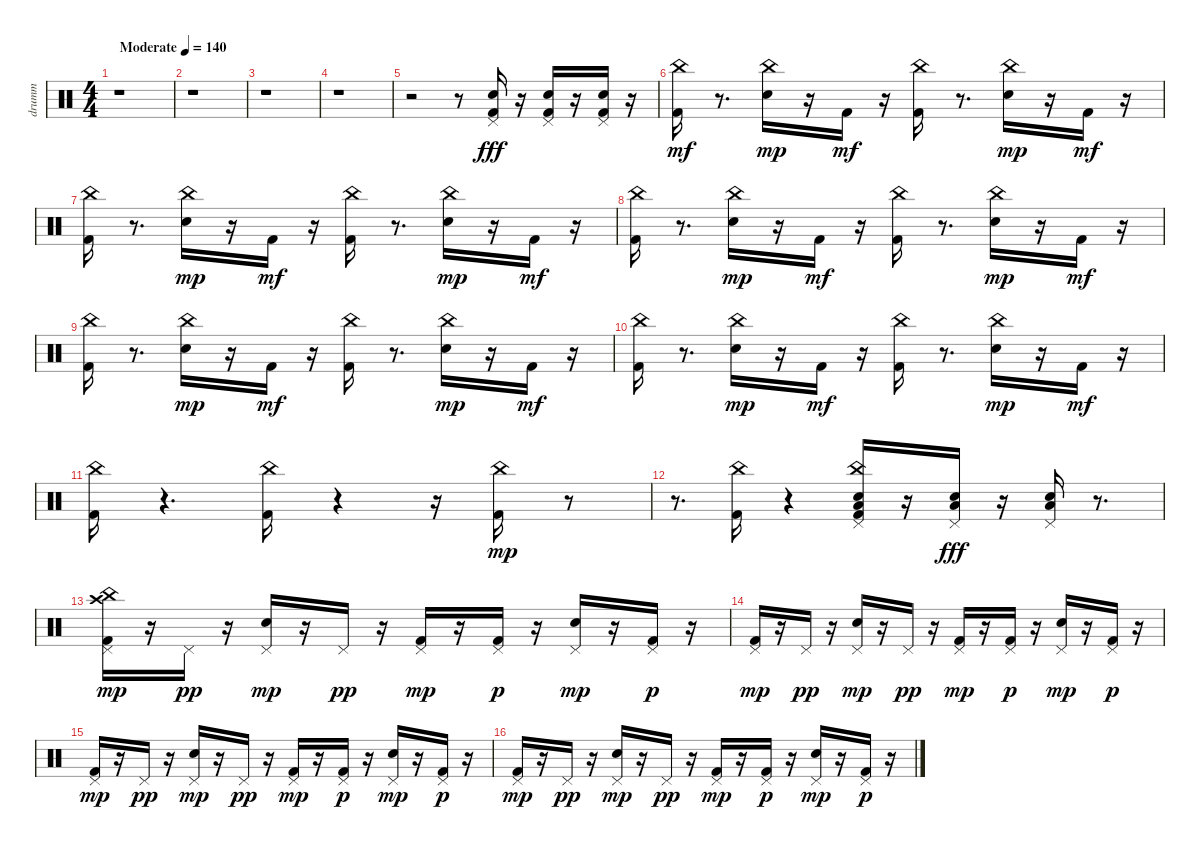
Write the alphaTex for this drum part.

\track ("drumm" "drumm") {instrument percussion}
\staff {score}
\articulation defaults
\ts (4 4)
\tempo (140 "Moderate")
\clef neutral
\ks c
r.1{dy fff} |
r.1 |
r.1 |
r.1 |
r.2 r.8 ("Pedal Hi-Hat (hit)" "Kick (hit) 2" "Electric Snare (hit)").16 r.16 ("Pedal Hi-Hat (hit)" "Kick (hit) 2" "Electric Snare (hit)").16 r.16 ("Pedal Hi-Hat (hit)" "Kick (hit) 2" "Electric Snare (hit)").16 r.16 |
("China (hit)" "Kick (hit) 2").16{dy mf} r.8{d} ("Electric Snare (hit)" "China (hit)").16{dy mp} r.16 "Kick (hit) 2".16{dy mf} r.16 ("China (hit)" "Kick (hit) 2").16 r.8{d} ("Electric Snare (hit)" "China (hit)").16{dy mp} r.16 "Kick (hit) 2".16{dy mf} r.16 |
("China (hit)" "Kick (hit) 2").16 r.8{d} ("Electric Snare (hit)" "China (hit)").16{dy mp} r.16 "Kick (hit) 2".16{dy mf} r.16 ("China (hit)" "Kick (hit) 2").16 r.8{d} ("Electric Snare (hit)" "China (hit)").16{dy mp} r.16 "Kick (hit) 2".16{dy mf} r.16 |
("China (hit)" "Kick (hit) 2").16 r.8{d} ("Electric Snare (hit)" "China (hit)").16{dy mp} r.16 "Kick (hit) 2".16{dy mf} r.16 ("China (hit)" "Kick (hit) 2").16 r.8{d} ("Electric Snare (hit)" "China (hit)").16{dy mp} r.16 "Kick (hit) 2".16{dy mf} r.16 |
("China (hit)" "Kick (hit) 2").16 r.8{d} ("Electric Snare (hit)" "China (hit)").16{dy mp} r.16 "Kick (hit) 2".16{dy mf} r.16 ("China (hit)" "Kick (hit) 2").16 r.8{d} ("Electric Snare (hit)" "China (hit)").16{dy mp} r.16 "Kick (hit) 2".16{dy mf} r.16 |
("China (hit)" "Kick (hit) 2").16 r.8{d} ("Electric Snare (hit)" "China (hit)").16{dy mp} r.16 "Kick (hit) 2".16{dy mf} r.16 ("China (hit)" "Kick (hit) 2").16 r.8{d} ("Electric Snare (hit)" "China (hit)").16{dy mp} r.16 "Kick (hit) 2".16{dy mf} r.16 |
("China (hit)" "Kick (hit) 2").16 r.4{d} ("China (hit)" "Kick (hit) 2").16 r.4 r.16 ("Kick (hit) 2" "China (hit)").16{dy mp} r.8 |
r.8{d} ("Kick (hit) 2" "China (hit)").16 r.4 ("Low Tom (hit)" "Pedal Hi-Hat (hit)" "Electric Snare (hit)" "Kick (hit) 2" "China (hit)").16 r.16 ("Low Tom (hit)" "Pedal Hi-Hat (hit)" "Electric Snare (hit)").16{dy fff} r.16 ("Pedal Hi-Hat (hit)" "Low Tom (hit)" "Electric Snare (hit)").16 r.8{d} |
("Crash high (hit)" "China (hit)" "Kick (hit) 2" "Pedal Hi-Hat (hit)").16{dy mp} r.16 "Pedal Hi-Hat (hit)".16{dy pp} r.16 ("Electric Snare (hit)" "Pedal Hi-Hat (hit)").16{dy mp} r.16 "Pedal Hi-Hat (hit)".16{dy pp} r.16 ("Kick (hit) 2" "Pedal Hi-Hat (hit)").16{dy mp} r.16 ("Kick (hit) 2" "Pedal Hi-Hat (hit)").16{dy p} r.16 ("Electric Snare (hit)" "Pedal Hi-Hat (hit)").16{dy mp} r.16 ("Kick (hit) 2" "Pedal Hi-Hat (hit)").16{dy p} r.16 |
("Kick (hit) 2" "Pedal Hi-Hat (hit)").16{dy mp} r.16 "Pedal Hi-Hat (hit)".16{dy pp} r.16 ("Electric Snare (hit)" "Pedal Hi-Hat (hit)").16{dy mp} r.16 "Pedal Hi-Hat (hit)".16{dy pp} r.16 ("Kick (hit) 2" "Pedal Hi-Hat (hit)").16{dy mp} r.16 ("Kick (hit) 2" "Pedal Hi-Hat (hit)").16{dy p} r.16 ("Electric Snare (hit)" "Pedal Hi-Hat (hit)").16{dy mp} r.16 ("Kick (hit) 2" "Pedal Hi-Hat (hit)").16{dy p} r.16 |
("Kick (hit) 2" "Pedal Hi-Hat (hit)").16{dy mp} r.16 "Pedal Hi-Hat (hit)".16{dy pp} r.16 ("Electric Snare (hit)" "Pedal Hi-Hat (hit)").16{dy mp} r.16 "Pedal Hi-Hat (hit)".16{dy pp} r.16 ("Kick (hit) 2" "Pedal Hi-Hat (hit)").16{dy mp} r.16 ("Kick (hit) 2" "Pedal Hi-Hat (hit)").16{dy p} r.16 ("Electric Snare (hit)" "Pedal Hi-Hat (hit)").16{dy mp} r.16 ("Kick (hit) 2" "Pedal Hi-Hat (hit)").16{dy p} r.16 |
("Kick (hit) 2" "Pedal Hi-Hat (hit)").16{dy mp} r.16 "Pedal Hi-Hat (hit)".16{dy pp} r.16 ("Electric Snare (hit)" "Pedal Hi-Hat (hit)").16{dy mp} r.16 "Pedal Hi-Hat (hit)".16{dy pp} r.16 ("Kick (hit) 2" "Pedal Hi-Hat (hit)").16{dy mp} r.16 ("Kick (hit) 2" "Pedal Hi-Hat (hit)").16{dy p} r.16 ("Electric Snare (hit)" "Pedal Hi-Hat (hit)").16{dy mp} r.16 ("Kick (hit) 2" "Pedal Hi-Hat (hit)").16{dy p} r.16
